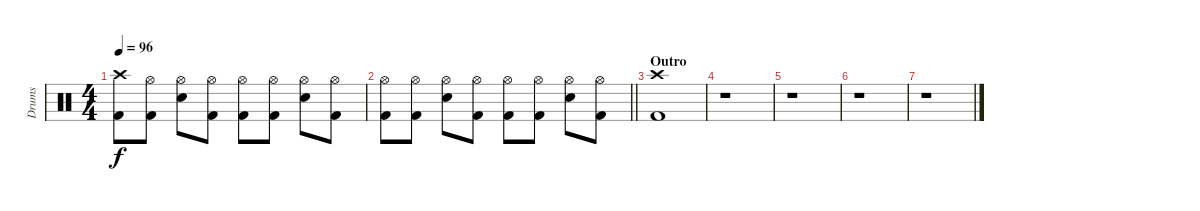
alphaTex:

\track ("Drums" "Drums") {instrument percussion}
\staff {score}
\articulation defaults
\ts (4 4)
\tempo 96
\clef neutral
\ks c
("Crash high (hit)" "Kick (hit) 2").8{dy f} ("Hi-Hat (open)" "Kick (hit) 2").8 ("Hi-Hat (open)" "Electric Snare (hit)").8 ("Hi-Hat (open)" "Kick (hit) 2").8 ("Hi-Hat (open)" "Kick (hit) 2").8 ("Hi-Hat (open)" "Kick (hit) 2").8 ("Hi-Hat (open)" "Electric Snare (hit)").8 ("Hi-Hat (open)" "Kick (hit) 2").8 |
\barLineRight lightlight
("Hi-Hat (open)" "Kick (hit) 2").8 ("Hi-Hat (open)" "Kick (hit) 2").8 ("Hi-Hat (open)" "Electric Snare (hit)").8 ("Hi-Hat (open)" "Kick (hit) 2").8 ("Hi-Hat (open)" "Kick (hit) 2").8 ("Hi-Hat (open)" "Kick (hit) 2").8 ("Hi-Hat (open)" "Electric Snare (hit)").8 ("Hi-Hat (open)" "Kick (hit) 2").8 |
\section ("" "Outro")
("Crash high (hit)" "Kick (hit) 2").1 |
r.1 |
r.1 |
r.1 |
r.1
